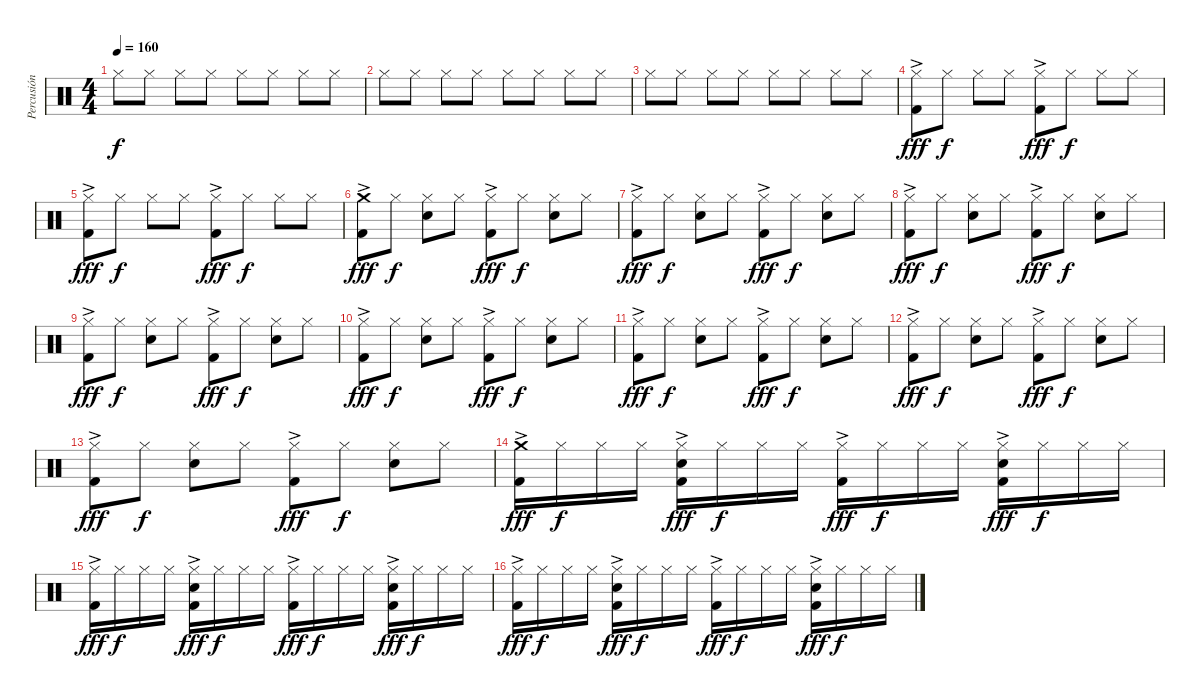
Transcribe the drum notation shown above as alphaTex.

\track ("Percusión" "Percusión") {instrument percussion}
\staff {score}
\articulation defaults
\ts (4 4)
\tempo 160
\clef neutral
\ks c "Hi-Hat (closed)".8{dy f} "Hi-Hat (closed)".8 "Hi-Hat (closed)".8 "Hi-Hat (closed)".8 "Hi-Hat (closed)".8 "Hi-Hat (closed)".8 "Hi-Hat (closed)".8 "Hi-Hat (closed)".8
|
"Hi-Hat (closed)".8 "Hi-Hat (closed)".8 "Hi-Hat (closed)".8 "Hi-Hat (closed)".8 "Hi-Hat (closed)".8 "Hi-Hat (closed)".8 "Hi-Hat (closed)".8 "Hi-Hat (closed)".8 |
"Hi-Hat (closed)".8 "Hi-Hat (closed)".8 "Hi-Hat (closed)".8 "Hi-Hat (closed)".8 "Hi-Hat (closed)".8 "Hi-Hat (closed)".8 "Hi-Hat (closed)".8 "Hi-Hat (closed)".8 |
("Hi-Hat (closed)" "Kick (hit) 2"{ac}).8{dy fff} "Hi-Hat (closed)".8{dy f} "Hi-Hat (closed)".8 "Hi-Hat (closed)".8 ("Hi-Hat (closed)" "Kick (hit) 2"{ac}).8{dy fff} "Hi-Hat (closed)".8{dy f} "Hi-Hat (closed)".8 "Hi-Hat (closed)".8 |
("Hi-Hat (closed)" "Kick (hit) 2"{ac}).8{dy fff} "Hi-Hat (closed)".8{dy f} "Hi-Hat (closed)".8 "Hi-Hat (closed)".8 ("Hi-Hat (closed)" "Kick (hit) 2"{ac}).8{dy fff} "Hi-Hat (closed)".8{dy f} "Hi-Hat (closed)".8 "Hi-Hat (closed)".8 |
("Crash medium (hit)" "Kick (hit) 2"{ac}).8{dy fff} "Hi-Hat (closed)".8{dy f} ("Hi-Hat (closed)" "Electric Snare (hit)").8 "Hi-Hat (closed)".8 ("Hi-Hat (closed)" "Kick (hit) 2"{ac}).8{dy fff} "Hi-Hat (closed)".8{dy f} ("Hi-Hat (closed)" "Electric Snare (hit)").8 "Hi-Hat (closed)".8 |
("Hi-Hat (closed)" "Kick (hit) 2"{ac}).8{dy fff} "Hi-Hat (closed)".8{dy f} ("Hi-Hat (closed)" "Electric Snare (hit)").8 "Hi-Hat (closed)".8 ("Hi-Hat (closed)" "Kick (hit) 2"{ac}).8{dy fff} "Hi-Hat (closed)".8{dy f} ("Hi-Hat (closed)" "Electric Snare (hit)").8 "Hi-Hat (closed)".8 |
("Hi-Hat (closed)" "Kick (hit) 2"{ac}).8{dy fff} "Hi-Hat (closed)".8{dy f} ("Hi-Hat (closed)" "Electric Snare (hit)").8 "Hi-Hat (closed)".8 ("Hi-Hat (closed)" "Kick (hit) 2"{ac}).8{dy fff} "Hi-Hat (closed)".8{dy f} ("Hi-Hat (closed)" "Electric Snare (hit)").8 "Hi-Hat (closed)".8 |
("Hi-Hat (closed)" "Kick (hit) 2"{ac}).8{dy fff} "Hi-Hat (closed)".8{dy f} ("Hi-Hat (closed)" "Electric Snare (hit)").8 "Hi-Hat (closed)".8 ("Hi-Hat (closed)" "Kick (hit) 2"{ac}).8{dy fff} "Hi-Hat (closed)".8{dy f} ("Hi-Hat (closed)" "Electric Snare (hit)").8 "Hi-Hat (closed)".8 |
("Hi-Hat (closed)" "Kick (hit) 2"{ac}).8{dy fff} "Hi-Hat (closed)".8{dy f} ("Hi-Hat (closed)" "Electric Snare (hit)").8 "Hi-Hat (closed)".8 ("Hi-Hat (closed)" "Kick (hit) 2"{ac}).8{dy fff} "Hi-Hat (closed)".8{dy f} ("Hi-Hat (closed)" "Electric Snare (hit)").8 "Hi-Hat (closed)".8 |
("Hi-Hat (closed)" "Kick (hit) 2"{ac}).8{dy fff} "Hi-Hat (closed)".8{dy f} ("Hi-Hat (closed)" "Electric Snare (hit)").8 "Hi-Hat (closed)".8 ("Hi-Hat (closed)" "Kick (hit) 2"{ac}).8{dy fff} "Hi-Hat (closed)".8{dy f} ("Hi-Hat (closed)" "Electric Snare (hit)").8 "Hi-Hat (closed)".8 |
("Hi-Hat (closed)" "Kick (hit) 2"{ac}).8{dy fff} "Hi-Hat (closed)".8{dy f} ("Hi-Hat (closed)" "Electric Snare (hit)").8 "Hi-Hat (closed)".8 ("Hi-Hat (closed)" "Kick (hit) 2"{ac}).8{dy fff} "Hi-Hat (closed)".8{dy f} ("Hi-Hat (closed)" "Electric Snare (hit)").8 "Hi-Hat (closed)".8 |
("Hi-Hat (closed)" "Kick (hit) 2"{ac}).8{dy fff} "Hi-Hat (closed)".8{dy f} ("Hi-Hat (closed)" "Electric Snare (hit)").8 "Hi-Hat (closed)".8 ("Hi-Hat (closed)" "Kick (hit) 2"{ac}).8{dy fff} "Hi-Hat (closed)".8{dy f} ("Hi-Hat (closed)" "Electric Snare (hit)").8 "Hi-Hat (closed)".8 |
("Crash medium (hit)" "Kick (hit) 2"{ac}).16{dy fff} "Hi-Hat (closed)".16{dy f} "Hi-Hat (closed)".16 "Hi-Hat (closed)".16 ("Hi-Hat (closed)"{ac} "Electric Snare (hit)" "Kick (hit) 2").16{dy fff} "Hi-Hat (closed)".16{dy f} "Hi-Hat (closed)".16 "Hi-Hat (closed)".16 ("Hi-Hat (closed)"{ac} "Kick (hit) 2"{ac}).16{dy fff} "Hi-Hat (closed)".16{dy f} "Hi-Hat (closed)".16 "Hi-Hat (closed)".16 ("Hi-Hat (closed)"{ac} "Electric Snare (hit)" "Kick (hit) 2").16{dy fff} "Hi-Hat (closed)".16{dy f} "Hi-Hat (closed)".16 "Hi-Hat (closed)".16 |
("Hi-Hat (closed)" "Kick (hit) 2"{ac}).16{dy fff} "Hi-Hat (closed)".16{dy f} "Hi-Hat (closed)".16 "Hi-Hat (closed)".16 ("Hi-Hat (closed)"{ac} "Electric Snare (hit)" "Kick (hit) 2").16{dy fff} "Hi-Hat (closed)".16{dy f} "Hi-Hat (closed)".16 "Hi-Hat (closed)".16 ("Hi-Hat (closed)"{ac} "Kick (hit) 2"{ac}).16{dy fff} "Hi-Hat (closed)".16{dy f} "Hi-Hat (closed)".16 "Hi-Hat (closed)".16 ("Hi-Hat (closed)"{ac} "Electric Snare (hit)" "Kick (hit) 2").16{dy fff} "Hi-Hat (closed)".16{dy f} "Hi-Hat (closed)".16 "Hi-Hat (closed)".16 |
("Hi-Hat (closed)" "Kick (hit) 2"{ac}).16{dy fff} "Hi-Hat (closed)".16{dy f} "Hi-Hat (closed)".16 "Hi-Hat (closed)".16 ("Hi-Hat (closed)"{ac} "Electric Snare (hit)" "Kick (hit) 2").16{dy fff} "Hi-Hat (closed)".16{dy f} "Hi-Hat (closed)".16 "Hi-Hat (closed)".16 ("Hi-Hat (closed)"{ac} "Kick (hit) 2"{ac}).16{dy fff} "Hi-Hat (closed)".16{dy f} "Hi-Hat (closed)".16 "Hi-Hat (closed)".16 ("Hi-Hat (closed)"{ac} "Electric Snare (hit)" "Kick (hit) 2").16{dy fff} "Hi-Hat (closed)".16{dy f} "Hi-Hat (closed)".16 "Hi-Hat (closed)".16
